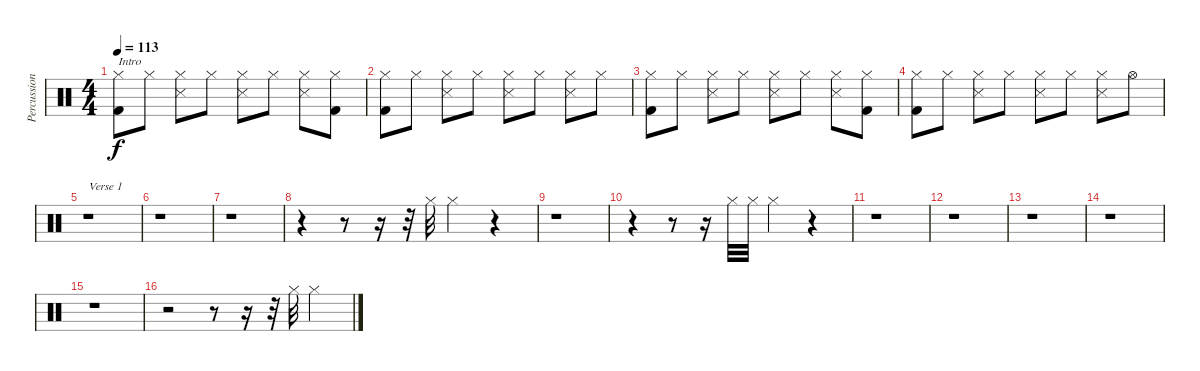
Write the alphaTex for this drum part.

\track ("Percussion" "Percussion") {instrument percussion}
\staff {score}
\articulation defaults
\ts (4 4)
\tempo 113
\clef neutral
\ks c
("Hi-Hat (closed)" "Kick (hit) 2").8{txt "Intro" dy f} "Hi-Hat (closed)".8 ("Hi-Hat (closed)" "Snare (side stick) 3").8 "Hi-Hat (closed)".8 ("Hi-Hat (closed)" "Snare (side stick) 3").8 "Hi-Hat (closed)".8 ("Hi-Hat (closed)" "Snare (side stick) 3").8 ("Hi-Hat (closed)" "Kick (hit) 2").8 |
("Hi-Hat (closed)" "Kick (hit) 2").8 "Hi-Hat (closed)".8 ("Hi-Hat (closed)" "Snare (side stick) 3").8 "Hi-Hat (closed)".8 ("Hi-Hat (closed)" "Snare (side stick) 3").8 "Hi-Hat (closed)".8 ("Hi-Hat (closed)" "Snare (side stick) 3").8 "Hi-Hat (closed)".8 |
("Hi-Hat (closed)" "Kick (hit) 2").8 "Hi-Hat (closed)".8 ("Hi-Hat (closed)" "Snare (side stick) 3").8 "Hi-Hat (closed)".8 ("Hi-Hat (closed)" "Snare (side stick) 3").8 "Hi-Hat (closed)".8 ("Hi-Hat (closed)" "Snare (side stick) 3").8 ("Hi-Hat (closed)" "Kick (hit) 2").8 |
("Hi-Hat (closed)" "Kick (hit) 2").8 "Hi-Hat (closed)".8 ("Hi-Hat (closed)" "Snare (side stick) 3").8 "Hi-Hat (closed)".8 ("Hi-Hat (closed)" "Snare (side stick) 3").8 "Hi-Hat (closed)".8 ("Hi-Hat (closed)" "Snare (side stick) 3").8 "Hi-Hat (open)".8 |
r.1{txt "Verse 1"} |
r.1 |
r.1 |
r.4 r.8 r.16 r.32 "Hi-Hat (closed)".32 "Hi-Hat (closed)".4 r.4 |
r.1 |
r.4 r.8 r.16 "Hi-Hat (closed)".32 "Hi-Hat (closed)".32 "Hi-Hat (closed)".4 r.4 |
r.1 |
r.1 |
r.1 |
r.1 |
r.1 |
r.2 r.8 r.16 r.32 "Hi-Hat (closed)".32 "Hi-Hat (closed)".4
